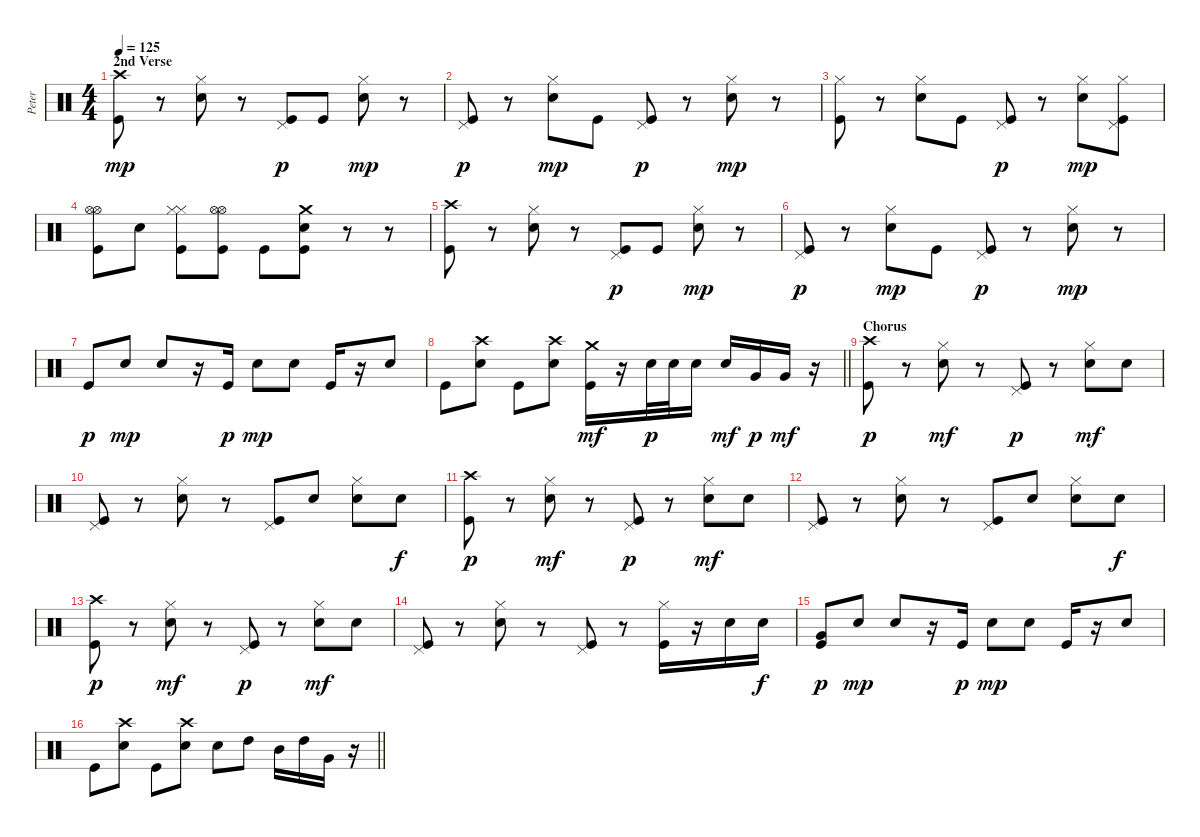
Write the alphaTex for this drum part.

\track ("Peter" "Peter") {instrument percussion}
\staff {score}
\articulation defaults
\ts (4 4)
\section ("" "2nd Verse")
\tempo 125
\clef neutral
\ks c
("Crash high (hit)" "Kick (hit)").8{dy mp} r.8 ("Hi-Hat (closed)" "Snare (hit) 2").8 r.8 ("Pedal Hi-Hat (hit)" "Kick (hit)").8{dy p} "Kick (hit)".8 ("Hi-Hat (closed)" "Snare (hit) 2").8{dy mp} r.8 |
("Pedal Hi-Hat (hit)" "Kick (hit)").8{dy p} r.8 ("Hi-Hat (closed)" "Snare (hit) 2").8{dy mp} "Kick (hit)".8 ("Pedal Hi-Hat (hit)" "Kick (hit)").8{dy p} r.8 ("Hi-Hat (closed)" "Snare (hit) 2").8{dy mp} r.8 |
("Hi-Hat (closed)" "Kick (hit)").8 r.8 ("Hi-Hat (closed)" "Snare (hit) 2").8 "Kick (hit)".8 ("Pedal Hi-Hat (hit)" "Kick (hit)").8{dy p} r.8 ("Hi-Hat (closed)" "Snare (hit) 2").8{dy mp} ("Hi-Hat (closed)" "Pedal Hi-Hat (hit)" "Kick (hit)").8 |
("Hi-Hat (open)" "Hi-Hat (open)" "Kick (hit)").8 "Snare (hit) 2".8 ("Hi-Hat (closed)" "Hi-Hat (closed)" "Kick (hit)").8 ("Hi-Hat (open)" "Hi-Hat (open)" "Kick (hit)").8 "Kick (hit)".8 ("Crash medium (hit)" "Snare (hit) 2" "Kick (hit)").8 r.8 r.8 |
("Crash high (hit)" "Kick (hit)").8 r.8 ("Hi-Hat (closed)" "Snare (hit) 2").8 r.8 ("Pedal Hi-Hat (hit)" "Kick (hit)").8{dy p} "Kick (hit)".8 ("Hi-Hat (closed)" "Snare (hit) 2").8{dy mp} r.8 |
("Pedal Hi-Hat (hit)" "Kick (hit)").8{dy p} r.8 ("Hi-Hat (closed)" "Snare (hit) 2").8{dy mp} "Kick (hit)".8 ("Pedal Hi-Hat (hit)" "Kick (hit)").8{dy p} r.8 ("Hi-Hat (closed)" "Snare (hit) 2").8{dy mp} r.8 |
"Kick (hit)".8{dy p} "Snare (hit) 2".8{dy mp} "Snare (hit) 2".8 r.16 "Kick (hit)".16{dy p} "Snare (hit) 2".8{dy mp} "Snare (hit) 2".8 "Kick (hit)".16 r.16 "Snare (hit) 2".8 |
\barLineRight lightlight "Kick (hit)".8
("Crash high (hit)" "Snare (hit) 2").8 "Kick (hit)".8 ("Crash high (hit)" "Snare (hit) 2").8 ("Crash medium (hit)" "Kick (hit)").16{dy mf} r.16 "Snare (hit) 2".32{dy p} "Snare (hit) 2".32 "Snare (hit) 2".16 "Snare (hit) 2".16{dy mf} "Very Low Tom (hit)".16{dy p} "Very Low Tom (hit)".16{dy mf} r.16 |
\section ("" "Chorus")
("Crash high (hit)" "Kick (hit)").8{dy p} r.8 ("Hi-Hat (closed)" "Snare (hit) 2").8{dy mf} r.8 ("Pedal Hi-Hat (hit)" "Kick (hit)").8{dy p} r.8 ("Hi-Hat (closed)" "Snare (hit) 2").8{dy mf} "Snare (hit) 2".8 |
("Pedal Hi-Hat (hit)" "Kick (hit)").8 r.8 ("Hi-Hat (closed)" "Snare (hit) 2").8 r.8 ("Pedal Hi-Hat (hit)" "Kick (hit)").8 "Snare (hit) 2".8 ("Hi-Hat (closed)" "Snare (hit) 2").8 "Snare (hit) 2".8{dy f} |
("Crash high (hit)" "Kick (hit)").8{dy p} r.8 ("Hi-Hat (closed)" "Snare (hit) 2").8{dy mf} r.8 ("Pedal Hi-Hat (hit)" "Kick (hit)").8{dy p} r.8 ("Hi-Hat (closed)" "Snare (hit) 2").8{dy mf} "Snare (hit) 2".8 |
("Pedal Hi-Hat (hit)" "Kick (hit)").8 r.8 ("Hi-Hat (closed)" "Snare (hit) 2").8 r.8 ("Pedal Hi-Hat (hit)" "Kick (hit)").8 "Snare (hit) 2".8 ("Hi-Hat (closed)" "Snare (hit) 2").8 "Snare (hit) 2".8{dy f} |
("Crash high (hit)" "Kick (hit)").8{dy p} r.8 ("Hi-Hat (closed)" "Snare (hit) 2").8{dy mf} r.8 ("Pedal Hi-Hat (hit)" "Kick (hit)").8{dy p} r.8 ("Hi-Hat (closed)" "Snare (hit) 2").8{dy mf} "Snare (hit) 2".8 |
("Pedal Hi-Hat (hit)" "Kick (hit)").8 r.8 ("Hi-Hat (closed)" "Snare (hit) 2").8 r.8 ("Pedal Hi-Hat (hit)" "Kick (hit)").8 r.8 ("Hi-Hat (closed)" "Kick (hit)").16 r.16 "Snare (hit) 2".16 "Snare (hit) 2".16{dy f} |
("Very Low Tom (hit)" "Kick (hit)").8{dy p} "Snare (hit) 2".8{dy mp} "Snare (hit) 2".8 r.16 "Kick (hit)".16{dy p} "Snare (hit) 2".8{dy mp} "Snare (hit) 2".8 "Kick (hit)".16 r.16 "Snare (hit) 2".8 |
\barLineRight lightlight "Kick (hit)".8
("Crash high (hit)" "Snare (hit) 2").8 "Kick (hit)".8 ("Crash high (hit)" "Snare (hit) 2").8 "Snare (hit) 2".8 "High Tom (hit)".8 "Mid Tom (hit)".16 "High Tom (hit)".16 "Very Low Tom (hit)".16 r.16
